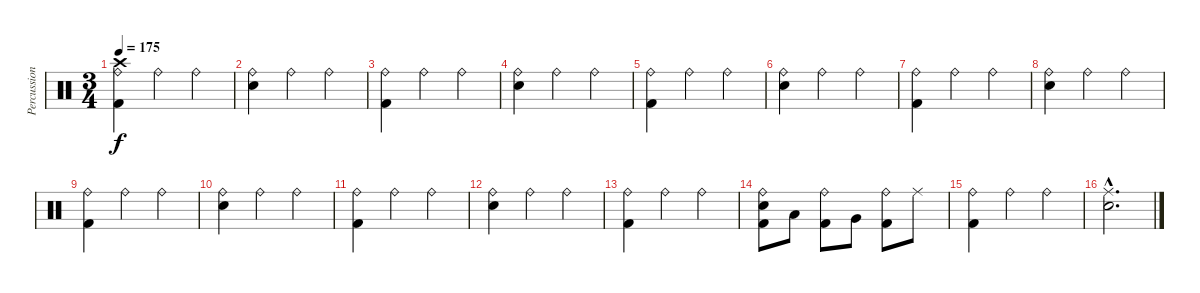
\track ("Percussion" "Percussion") {instrument percussion}
\staff {score}
\articulation defaults
\ts (3 4)
\tempo 175
\clef neutral
\ks c
("Crash high (hit)" "Ride (bell)" "Kick (hit) 2").4{dy f} "Ride (bell)".4 "Ride (bell)".4 |
("Ride (bell)" "Electric Snare (hit)").4 "Ride (bell)".4 "Ride (bell)".4 |
("Ride (bell)" "Kick (hit) 2").4 "Ride (bell)".4 "Ride (bell)".4 |
("Ride (bell)" "Electric Snare (hit)").4 "Ride (bell)".4 "Ride (bell)".4 |
("Ride (bell)" "Kick (hit) 2").4 "Ride (bell)".4 "Ride (bell)".4 |
("Ride (bell)" "Electric Snare (hit)").4 "Ride (bell)".4 "Ride (bell)".4 |
("Ride (bell)" "Kick (hit) 2").4 "Ride (bell)".4 "Ride (bell)".4 |
("Ride (bell)" "Electric Snare (hit)").4 "Ride (bell)".4 "Ride (bell)".4 |
("Ride (bell)" "Kick (hit) 2").4 "Ride (bell)".4 "Ride (bell)".4 |
("Ride (bell)" "Electric Snare (hit)").4 "Ride (bell)".4 "Ride (bell)".4 |
("Ride (bell)" "Kick (hit) 2").4 "Ride (bell)".4 "Ride (bell)".4 |
("Ride (bell)" "Electric Snare (hit)").4 "Ride (bell)".4 "Ride (bell)".4 |
("Ride (bell)" "Kick (hit) 2").4 "Ride (bell)".4 "Ride (bell)".4 |
("Ride (bell)" "Electric Snare (hit)" "Kick (hit) 2").8 "Low Floor Tom (hit)".8 ("Ride (bell)" "Kick (hit) 2").8 "Very Low Tom (hit)".8 ("Ride (bell)" "Kick (hit) 2").8 "Ride (middle)".8 |
("Ride (bell)" "Kick (hit) 2").4 "Ride (bell)".4 "Ride (bell)".4 |
("Ride (middle)"{hac} "Electric Snare (hit)"{hac}).2{d}
